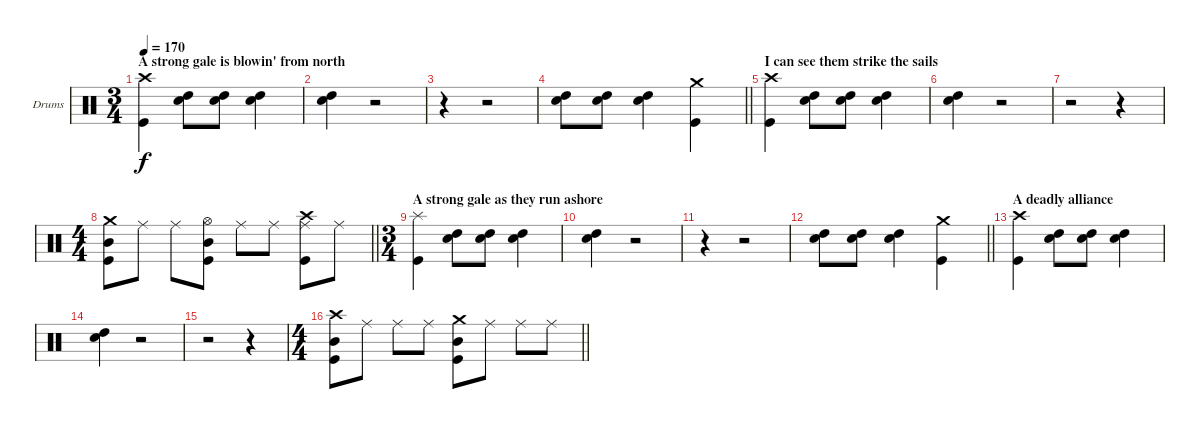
\bracketExtendMode groupsimilarinstruments
\firstSystemTrackNameOrientation horizontal
\otherSystemsTrackNameOrientation horizontal
\track ("Drumkit" "Drums") {instrument percussion}
\staff {score}
\articulation defaults
\ts (3 4)
\beaming (8 2 2 2 2)
\section ("" "A strong gale is blowin' from north")
\tempo 170
\clef neutral
\ks c
("Crash high (hit)" "Kick (hit)").4{dy f} ("Snare (hit) 2" "High Tom (hit)").8 ("Snare (hit) 2" "High Tom (hit)").8 ("Snare (hit) 2" "High Tom (hit)").4 |
("Snare (hit) 2" "High Tom (hit)").4 r.2 |
r.4 r.2 |
\barLineRight lightlight
("Snare (hit) 2" "High Tom (hit)").8 ("Snare (hit) 2" "High Tom (hit)").8 ("Snare (hit) 2" "High Tom (hit)").4 ("Crash medium (hit)" "Kick (hit)").4 |
\section ("" "I can see them strike the sails")
("Crash high (hit)" "Kick (hit)").4 ("Snare (hit) 2" "High Tom (hit)").8 ("Snare (hit) 2" "High Tom (hit)").8 ("Snare (hit) 2" "High Tom (hit)").4 |
("Snare (hit) 2" "High Tom (hit)").4 r.2 |
r.2 r.4 |
\ts (4 4)
\beaming (8 2 2 2 2)
\barLineRight lightlight
("Crash medium (hit)" "Mid Tom (hit)" "Kick (hit)").8 "Ride (middle)".8 "Ride (middle)".8 ("Hi-Hat (open)" "Mid Tom (hit)" "Kick (hit)").8 "Ride (middle)".8 "Ride (middle)".8 ("Crash high (hit)" "Ride (middle)" "Kick (hit)").8 "Ride (middle)".8 |
\ts (3 4)
\beaming (8 2 2 2 2)
\section ("" "A strong gale as they run ashore")
("Splash (hit)" "Kick (hit)").4 ("Snare (hit) 2" "High Tom (hit)").8 ("Snare (hit) 2" "High Tom (hit)").8 ("Snare (hit) 2" "High Tom (hit)").4 |
("Snare (hit) 2" "High Tom (hit)").4 r.2 |
r.4 r.2 |
\barLineRight lightlight
("Snare (hit) 2" "High Tom (hit)").8 ("Snare (hit) 2" "High Tom (hit)").8 ("Snare (hit) 2" "High Tom (hit)").4 ("Crash medium (hit)" "Kick (hit)").4 |
\section ("" "A deadly alliance")
("Crash high (hit)" "Kick (hit)").4 ("Snare (hit) 2" "High Tom (hit)").8 ("Snare (hit) 2" "High Tom (hit)").8 ("Snare (hit) 2" "High Tom (hit)").4 |
("Snare (hit) 2" "High Tom (hit)").4 r.2 |
r.2 r.4 |
\ts (4 4)
\beaming (8 2 2 2 2)
\barLineRight lightlight
("Crash high (hit)" "Mid Tom (hit)" "Kick (hit)").8 "Ride (middle)".8 "Ride (middle)".8 "Ride (middle)".8 ("Crash medium (hit)" "Mid Tom (hit)" "Kick (hit)").8 "Ride (middle)".8 "Ride (middle)".8 "Ride (middle)".8
